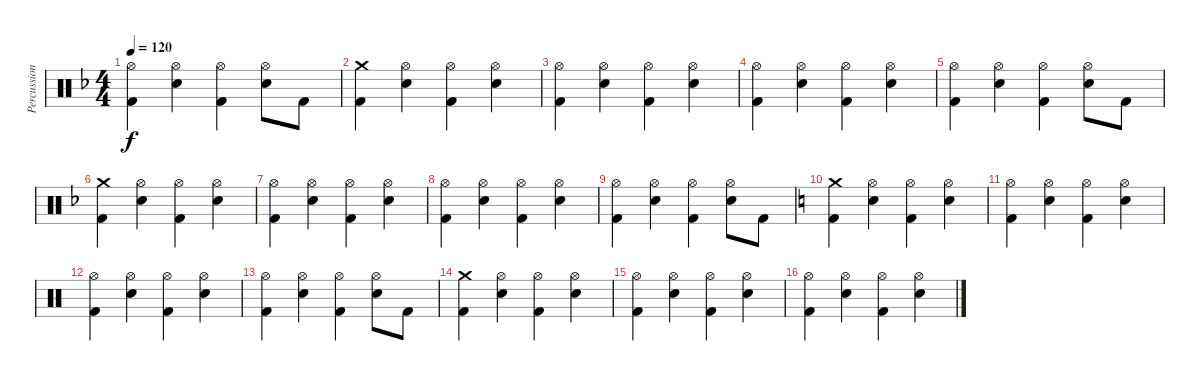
\track ("Percussion" "Percussion") {instrument percussion}
\staff {score}
\articulation defaults
\ts (4 4)
\tempo 120
\clef neutral
\ks f
("Hi-Hat (open)" "Kick (hit) 2").4{dy f} ("Hi-Hat (open)" "Electric Snare (hit)").4 ("Hi-Hat (open)" "Kick (hit) 2").4 ("Hi-Hat (open)" "Electric Snare (hit)").8 "Kick (hit) 2".8 |
("Crash medium (hit)" "Kick (hit) 2").4 ("Hi-Hat (open)" "Electric Snare (hit)").4 ("Hi-Hat (open)" "Kick (hit) 2").4 ("Hi-Hat (open)" "Electric Snare (hit)").4 |
("Hi-Hat (open)" "Kick (hit) 2").4 ("Hi-Hat (open)" "Electric Snare (hit)").4 ("Hi-Hat (open)" "Kick (hit) 2").4 ("Hi-Hat (open)" "Electric Snare (hit)").4 |
("Hi-Hat (open)" "Kick (hit) 2").4 ("Hi-Hat (open)" "Electric Snare (hit)").4 ("Hi-Hat (open)" "Kick (hit) 2").4 ("Hi-Hat (open)" "Electric Snare (hit)").4 |
("Hi-Hat (open)" "Kick (hit) 2").4 ("Hi-Hat (open)" "Electric Snare (hit)").4 ("Hi-Hat (open)" "Kick (hit) 2").4 ("Hi-Hat (open)" "Electric Snare (hit)").8 "Kick (hit) 2".8 |
("Crash medium (hit)" "Kick (hit) 2").4 ("Hi-Hat (open)" "Electric Snare (hit)").4 ("Hi-Hat (open)" "Kick (hit) 2").4 ("Hi-Hat (open)" "Electric Snare (hit)").4 |
("Hi-Hat (open)" "Kick (hit) 2").4 ("Hi-Hat (open)" "Electric Snare (hit)").4 ("Hi-Hat (open)" "Kick (hit) 2").4 ("Hi-Hat (open)" "Electric Snare (hit)").4 |
("Hi-Hat (open)" "Kick (hit) 2").4 ("Hi-Hat (open)" "Electric Snare (hit)").4 ("Hi-Hat (open)" "Kick (hit) 2").4 ("Hi-Hat (open)" "Electric Snare (hit)").4 |
("Hi-Hat (open)" "Kick (hit) 2").4 ("Hi-Hat (open)" "Electric Snare (hit)").4 ("Hi-Hat (open)" "Kick (hit) 2").4 ("Hi-Hat (open)" "Electric Snare (hit)").8 "Kick (hit) 2".8 |
\ks c
("Crash medium (hit)" "Kick (hit) 2").4 ("Hi-Hat (open)" "Electric Snare (hit)").4 ("Hi-Hat (open)" "Kick (hit) 2").4 ("Hi-Hat (open)" "Electric Snare (hit)").4 |
("Hi-Hat (open)" "Kick (hit) 2").4 ("Hi-Hat (open)" "Electric Snare (hit)").4 ("Hi-Hat (open)" "Kick (hit) 2").4 ("Hi-Hat (open)" "Electric Snare (hit)").4 |
("Hi-Hat (open)" "Kick (hit) 2").4 ("Hi-Hat (open)" "Electric Snare (hit)").4 ("Hi-Hat (open)" "Kick (hit) 2").4 ("Hi-Hat (open)" "Electric Snare (hit)").4 |
("Hi-Hat (open)" "Kick (hit) 2").4 ("Hi-Hat (open)" "Electric Snare (hit)").4 ("Hi-Hat (open)" "Kick (hit) 2").4 ("Hi-Hat (open)" "Electric Snare (hit)").8 "Kick (hit) 2".8 |
("Crash medium (hit)" "Kick (hit) 2").4 ("Hi-Hat (open)" "Electric Snare (hit)").4 ("Hi-Hat (open)" "Kick (hit) 2").4 ("Hi-Hat (open)" "Electric Snare (hit)").4 |
("Hi-Hat (open)" "Kick (hit) 2").4 ("Hi-Hat (open)" "Electric Snare (hit)").4 ("Hi-Hat (open)" "Kick (hit) 2").4 ("Hi-Hat (open)" "Electric Snare (hit)").4 |
("Hi-Hat (open)" "Kick (hit) 2").4 ("Hi-Hat (open)" "Electric Snare (hit)").4 ("Hi-Hat (open)" "Kick (hit) 2").4 ("Hi-Hat (open)" "Electric Snare (hit)").4
